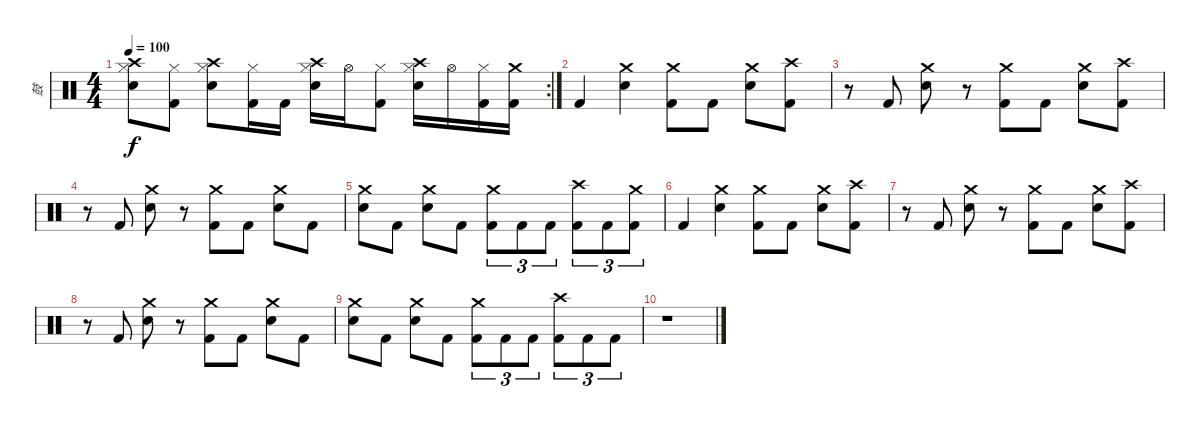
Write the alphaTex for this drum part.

\track ("鼓" "鼓") {instrument percussion}
\staff {score}
\articulation defaults
\rc 2
\ts (4 4)
\tempo 100
\clef neutral
\ks c
("Hi-Hat (closed)" "Crash high (hit)" "Snare (hit) 2").8{dy f} ("Hi-Hat (closed)" "Kick (hit) 2").8 ("Hi-Hat (closed)" "Crash high (hit)" "Snare (hit) 2").8 ("Hi-Hat (closed)" "Kick (hit) 2").16 "Kick (hit) 2".16 ("Hi-Hat (closed)" "Crash high (hit)" "Snare (hit) 2").16 "Hi-Hat (open)".16 ("Hi-Hat (closed)" "Kick (hit) 2").8 ("Hi-Hat (closed)" "Crash high (hit)" "Snare (hit) 2").16 "Hi-Hat (open)".16 ("Hi-Hat (closed)" "Kick (hit) 2").16 ("Crash medium (hit)" "Kick (hit) 2").16 |
"Kick (hit) 2".4 ("Crash medium (hit)" "Snare (hit) 2").4 ("Crash medium (hit)" "Kick (hit) 2").8 "Kick (hit) 2".8 ("Crash medium (hit)" "Snare (hit) 2").8 ("Crash high (hit)" "Kick (hit) 2").8 |
r.8 "Kick (hit) 2".8 ("Crash medium (hit)" "Snare (hit) 2").8 r.8 ("Crash medium (hit)" "Kick (hit) 2").8 "Kick (hit) 2".8 ("Crash medium (hit)" "Snare (hit) 2").8 ("Crash high (hit)" "Kick (hit) 2").8 |
r.8 "Kick (hit) 2".8 ("Crash medium (hit)" "Snare (hit) 2").8 r.8 ("Crash medium (hit)" "Kick (hit) 2").8 "Kick (hit) 2".8 ("Crash medium (hit)" "Snare (hit) 2").8 "Kick (hit) 2".8 |
("Crash medium (hit)" "Snare (hit) 2").8 "Kick (hit) 2".8 ("Crash medium (hit)" "Snare (hit) 2").8 "Kick (hit) 2".8 ("Crash medium (hit)" "Kick (hit) 2").8{tu (3 2)} "Kick (hit) 2".8{tu (3 2)} "Kick (hit) 2".8{tu (3 2)} ("Crash high (hit)" "Kick (hit) 2").8{tu (3 2)} "Kick (hit) 2".8{tu (3 2)} ("Crash medium (hit)" "Kick (hit) 2").8{tu (3 2)} |
"Kick (hit) 2".4 ("Crash medium (hit)" "Snare (hit) 2").4 ("Crash medium (hit)" "Kick (hit) 2").8 "Kick (hit) 2".8 ("Crash medium (hit)" "Snare (hit) 2").8 ("Crash high (hit)" "Kick (hit) 2").8 |
r.8 "Kick (hit) 2".8 ("Crash medium (hit)" "Snare (hit) 2").8 r.8 ("Crash medium (hit)" "Kick (hit) 2").8 "Kick (hit) 2".8 ("Crash medium (hit)" "Snare (hit) 2").8 ("Crash high (hit)" "Kick (hit) 2").8 |
r.8 "Kick (hit) 2".8 ("Crash medium (hit)" "Snare (hit) 2").8 r.8 ("Crash medium (hit)" "Kick (hit) 2").8 "Kick (hit) 2".8 ("Crash medium (hit)" "Snare (hit) 2").8 "Kick (hit) 2".8 |
("Crash medium (hit)" "Snare (hit) 2").8 "Kick (hit) 2".8 ("Crash medium (hit)" "Snare (hit) 2").8 "Kick (hit) 2".8 ("Crash medium (hit)" "Kick (hit) 2").8{tu (3 2)} "Kick (hit) 2".8{tu (3 2)} "Kick (hit) 2".8{tu (3 2)} ("Crash high (hit)" "Kick (hit) 2").8{tu (3 2)} "Kick (hit) 2".8{tu (3 2)} "Kick (hit) 2".8{tu (3 2)} |
r.1
